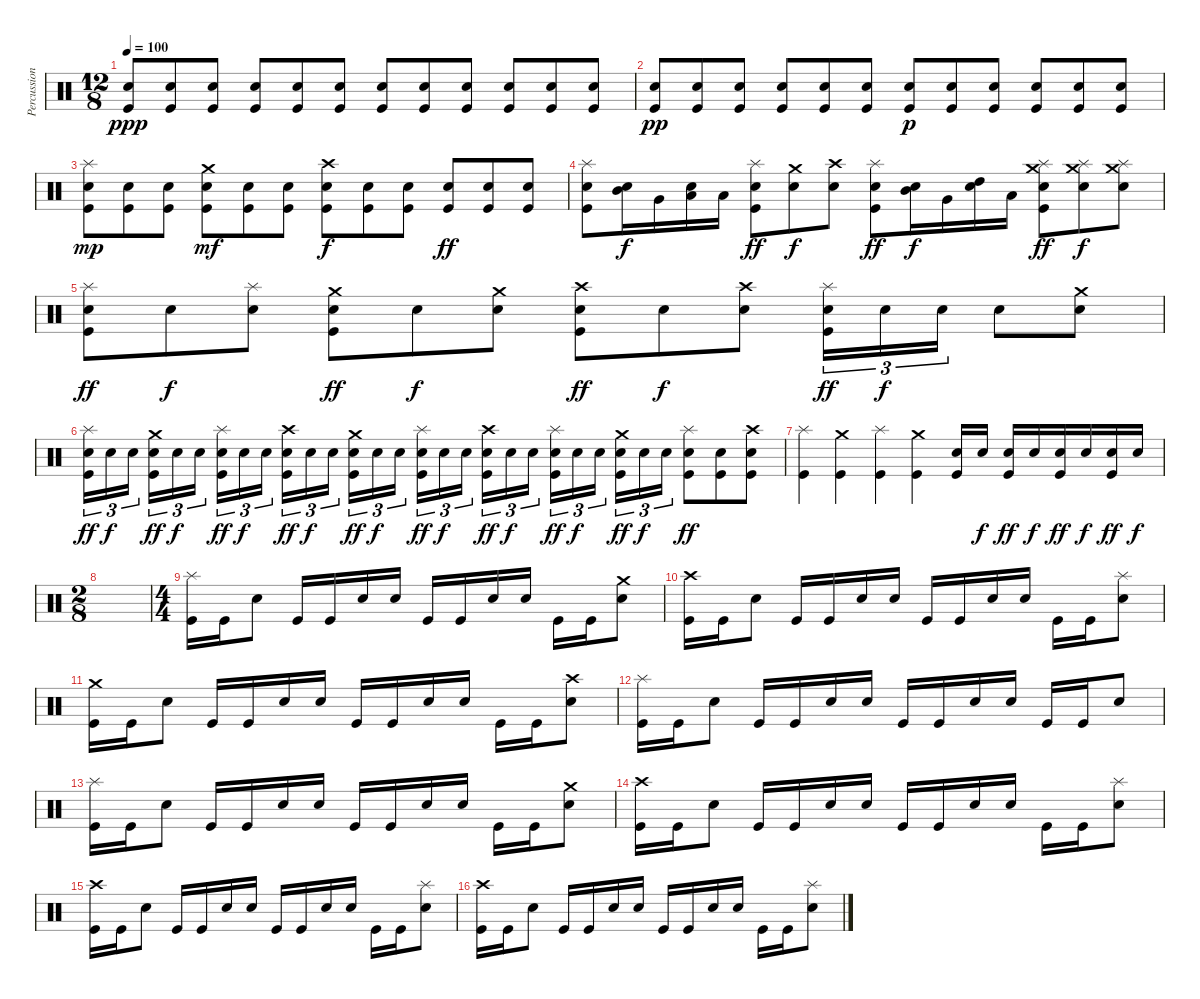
\track ("Percussioni" "Percussion") {instrument percussion}
\staff {score}
\articulation defaults
\ts (12 8)
\tempo 100
\clef neutral
\ks c
("Snare (hit) 2" "Kick (hit)").8{dy ppp} ("Snare (hit) 2" "Kick (hit)").8 ("Snare (hit) 2" "Kick (hit)").8 ("Snare (hit) 2" "Kick (hit)").8 ("Snare (hit) 2" "Kick (hit)").8 ("Snare (hit) 2" "Kick (hit)").8 ("Snare (hit) 2" "Kick (hit)").8 ("Snare (hit) 2" "Kick (hit)").8 ("Snare (hit) 2" "Kick (hit)").8 ("Snare (hit) 2" "Kick (hit)").8 ("Snare (hit) 2" "Kick (hit)").8 ("Snare (hit) 2" "Kick (hit)").8 |
("Snare (hit) 2" "Kick (hit)").8{dy pp} ("Snare (hit) 2" "Kick (hit)").8 ("Snare (hit) 2" "Kick (hit)").8 ("Snare (hit) 2" "Kick (hit)").8 ("Snare (hit) 2" "Kick (hit)").8 ("Snare (hit) 2" "Kick (hit)").8 ("Snare (hit) 2" "Kick (hit)").8{dy p} ("Snare (hit) 2" "Kick (hit)").8 ("Snare (hit) 2" "Kick (hit)").8 ("Snare (hit) 2" "Kick (hit)").8 ("Snare (hit) 2" "Kick (hit)").8 ("Snare (hit) 2" "Kick (hit)").8 |
("Splash (hit)" "Snare (hit) 2" "Kick (hit)").8{dy mp} ("Snare (hit) 2" "Kick (hit)").8 ("Snare (hit) 2" "Kick (hit)").8 ("Crash medium (hit)" "Snare (hit) 2" "Kick (hit)").8{dy mf} ("Snare (hit) 2" "Kick (hit)").8 ("Snare (hit) 2" "Kick (hit)").8 ("Crash high (hit)" "Snare (hit) 2" "Kick (hit)").8{dy f} ("Snare (hit) 2" "Kick (hit)").8 ("Snare (hit) 2" "Kick (hit)").8 ("Snare (hit) 2" "Kick (hit)").8{dy ff} ("Snare (hit) 2" "Kick (hit)").8 ("Snare (hit) 2" "Kick (hit)").8 |
("Splash (hit)" "Snare (hit) 2" "Kick (hit)").8 ("Mid Tom (hit)" "Snare (hit) 2").16{dy f} "Very Low Tom (hit)".16 ("Low Tom (hit)" "Snare (hit) 2").16 "Low Floor Tom (hit)".16 ("Splash (hit)" "Snare (hit) 2" "Kick (hit)").8{dy ff} ("Crash medium (hit)" "Snare (hit) 2").8{dy f} ("Crash high (hit)" "Snare (hit) 2").8 ("Splash (hit)" "Snare (hit) 2" "Kick (hit)").8{dy ff} ("Mid Tom (hit)" "Snare (hit) 2").16{dy f} "Very Low Tom (hit)".16 ("High Tom (hit)" "Snare (hit) 2").16 "Low Tom (hit)".16 ("Splash (hit)" "Crash medium (hit)" "Snare (hit) 2" "Kick (hit)").8{dy ff} ("Splash (hit)" "Crash medium (hit)" "Snare (hit) 2").8{dy f} ("Splash (hit)" "Crash medium (hit)" "Snare (hit) 2").8 |
("Splash (hit)" "Snare (hit) 2" "Kick (hit)").8{dy ff} "Snare (hit) 2".8{dy f} ("Splash (hit)" "Snare (hit) 2").8 ("Crash medium (hit)" "Snare (hit) 2" "Kick (hit)").8{dy ff} "Snare (hit) 2".8{dy f} ("Crash medium (hit)" "Snare (hit) 2").8 ("Crash high (hit)" "Snare (hit) 2" "Kick (hit)").8{dy ff} "Snare (hit) 2".8{dy f} ("Crash high (hit)" "Snare (hit) 2").8 ("Splash (hit)" "Snare (hit) 2" "Kick (hit)").16{tu (3 2) dy ff} "Snare (hit) 2".16{tu (3 2) dy f} "Snare (hit) 2".16{tu (3 2)} "Snare (hit) 2".8 ("Crash medium (hit)" "Snare (hit) 2").8 |
("Splash (hit)" "Snare (hit) 2" "Kick (hit)").16{tu (3 2) dy ff} "Snare (hit) 2".16{tu (3 2) dy f} "Snare (hit) 2".16{tu (3 2)} ("Crash medium (hit)" "Snare (hit) 2" "Kick (hit)").16{tu (3 2) dy ff} "Snare (hit) 2".16{tu (3 2) dy f} "Snare (hit) 2".16{tu (3 2)} ("Splash (hit)" "Snare (hit) 2" "Kick (hit)").16{tu (3 2) dy ff} "Snare (hit) 2".16{tu (3 2) dy f} "Snare (hit) 2".16{tu (3 2)} ("Crash high (hit)" "Snare (hit) 2" "Kick (hit)").16{tu (3 2) dy ff} "Snare (hit) 2".16{tu (3 2) dy f} "Snare (hit) 2".16{tu (3 2)} ("Crash medium (hit)" "Snare (hit) 2" "Kick (hit)").16{tu (3 2) dy ff} "Snare (hit) 2".16{tu (3 2) dy f} "Snare (hit) 2".16{tu (3 2)} ("Splash (hit)" "Snare (hit) 2" "Kick (hit)").16{tu (3 2) dy ff} "Snare (hit) 2".16{tu (3 2) dy f} "Snare (hit) 2".16{tu (3 2)} ("Crash high (hit)" "Snare (hit) 2" "Kick (hit)").16{tu (3 2) dy ff} "Snare (hit) 2".16{tu (3 2) dy f} "Snare (hit) 2".16{tu (3 2)} ("Splash (hit)" "Snare (hit) 2" "Kick (hit)").16{tu (3 2) dy ff} "Snare (hit) 2".16{tu (3 2) dy f} "Snare (hit) 2".16{tu (3 2)} ("Crash medium (hit)" "Snare (hit) 2" "Kick (hit)").16{tu (3 2) dy ff} "Snare (hit) 2".16{tu (3 2) dy f} "Snare (hit) 2".16{tu (3 2)} ("Splash (hit)" "Snare (hit) 2" "Kick (hit)").8{dy ff} ("Snare (hit) 2" "Kick (hit)").8 ("Crash high (hit)" "Snare (hit) 2" "Kick (hit)").8 |
("Splash (hit)" "Kick (hit)").4 ("Crash medium (hit)" "Kick (hit)").4 ("Splash (hit)" "Kick (hit)").4 ("Crash medium (hit)" "Kick (hit)").4 ("Snare (hit) 2" "Kick (hit)").16 "Snare (hit) 2".16{dy f} ("Snare (hit) 2" "Kick (hit)").16{dy ff} "Snare (hit) 2".16{dy f} ("Snare (hit) 2" "Kick (hit)").16{dy ff} "Snare (hit) 2".16{dy f} ("Snare (hit) 2" "Kick (hit)").16{dy ff} "Snare (hit) 2".16{dy f} |
\ts (2 8)
|
\ts (4 4)
("Splash (hit)" "Kick (hit)").16 "Kick (hit)".16 "Snare (hit) 2".8 "Kick (hit)".16 "Kick (hit)".16 "Snare (hit) 2".16 "Snare (hit) 2".16 "Kick (hit)".16 "Kick (hit)".16 "Snare (hit) 2".16 "Snare (hit) 2".16 "Kick (hit)".16 "Kick (hit)".16 ("Crash medium (hit)" "Snare (hit) 2").8 |
("Crash high (hit)" "Kick (hit)").16 "Kick (hit)".16 "Snare (hit) 2".8 "Kick (hit)".16 "Kick (hit)".16 "Snare (hit) 2".16 "Snare (hit) 2".16 "Kick (hit)".16 "Kick (hit)".16 "Snare (hit) 2".16 "Snare (hit) 2".16 "Kick (hit)".16 "Kick (hit)".16 ("Splash (hit)" "Snare (hit) 2").8 |
("Crash medium (hit)" "Kick (hit)").16 "Kick (hit)".16 "Snare (hit) 2".8 "Kick (hit)".16 "Kick (hit)".16 "Snare (hit) 2".16 "Snare (hit) 2".16 "Kick (hit)".16 "Kick (hit)".16 "Snare (hit) 2".16 "Snare (hit) 2".16 "Kick (hit)".16 "Kick (hit)".16 ("Crash high (hit)" "Snare (hit) 2").8 |
("Splash (hit)" "Kick (hit)").16 "Kick (hit)".16 "Snare (hit) 2".8 "Kick (hit)".16 "Kick (hit)".16 "Snare (hit) 2".16 "Snare (hit) 2".16 "Kick (hit)".16 "Kick (hit)".16 "Snare (hit) 2".16 "Snare (hit) 2".16 "Kick (hit)".16 "Kick (hit)".16 "Snare (hit) 2".8 |
("Splash (hit)" "Kick (hit)").16 "Kick (hit)".16 "Snare (hit) 2".8 "Kick (hit)".16 "Kick (hit)".16 "Snare (hit) 2".16 "Snare (hit) 2".16 "Kick (hit)".16 "Kick (hit)".16 "Snare (hit) 2".16 "Snare (hit) 2".16 "Kick (hit)".16 "Kick (hit)".16 ("Crash medium (hit)" "Snare (hit) 2").8 |
("Crash high (hit)" "Kick (hit)").16 "Kick (hit)".16 "Snare (hit) 2".8 "Kick (hit)".16 "Kick (hit)".16 "Snare (hit) 2".16 "Snare (hit) 2".16 "Kick (hit)".16 "Kick (hit)".16 "Snare (hit) 2".16 "Snare (hit) 2".16 "Kick (hit)".16 "Kick (hit)".16 ("Splash (hit)" "Snare (hit) 2").8 |
("Crash high (hit)" "Kick (hit)").16 "Kick (hit)".16 "Snare (hit) 2".8 "Kick (hit)".16 "Kick (hit)".16 "Snare (hit) 2".16 "Snare (hit) 2".16 "Kick (hit)".16 "Kick (hit)".16 "Snare (hit) 2".16 "Snare (hit) 2".16 "Kick (hit)".16 "Kick (hit)".16 ("Splash (hit)" "Snare (hit) 2").8 |
("Crash high (hit)" "Kick (hit)").16 "Kick (hit)".16 "Snare (hit) 2".8 "Kick (hit)".16 "Kick (hit)".16 "Snare (hit) 2".16 "Snare (hit) 2".16 "Kick (hit)".16 "Kick (hit)".16 "Snare (hit) 2".16 "Snare (hit) 2".16 "Kick (hit)".16 "Kick (hit)".16 ("Splash (hit)" "Snare (hit) 2").8
